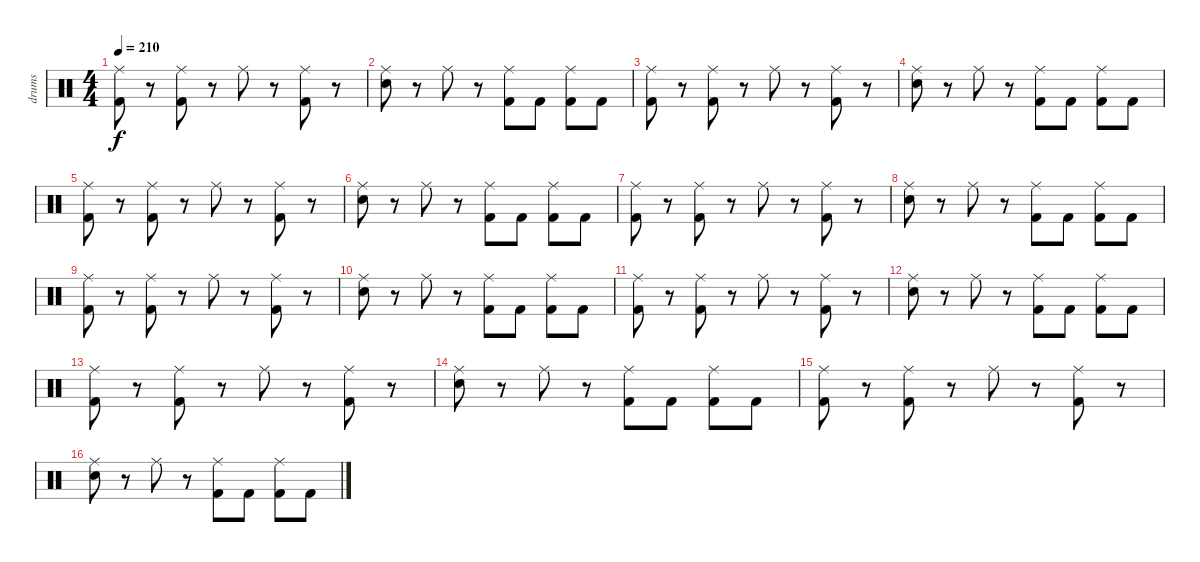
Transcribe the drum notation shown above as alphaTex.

\track ("drums" "drums") {instrument percussion}
\staff {score}
\articulation defaults
\ts (4 4)
\tempo 210
\clef neutral
\ks c
("Ride (middle)" "Kick (hit) 2").8{dy f} r.8 ("Ride (middle)" "Kick (hit) 2").8 r.8 "Ride (middle)".8 r.8 ("Ride (middle)" "Kick (hit) 2").8 r.8 |
("Ride (middle)" "Snare (hit) 2").8 r.8 "Ride (middle)".8 r.8 ("Ride (middle)" "Kick (hit) 2").8 "Kick (hit) 2".8 ("Ride (middle)" "Kick (hit) 2").8 "Kick (hit) 2".8 |
("Ride (middle)" "Kick (hit) 2").8 r.8 ("Ride (middle)" "Kick (hit) 2").8 r.8 "Ride (middle)".8 r.8 ("Ride (middle)" "Kick (hit) 2").8 r.8 |
("Ride (middle)" "Snare (hit) 2").8 r.8 "Ride (middle)".8 r.8 ("Ride (middle)" "Kick (hit) 2").8 "Kick (hit) 2".8 ("Ride (middle)" "Kick (hit) 2").8 "Kick (hit) 2".8 |
("Ride (middle)" "Kick (hit) 2").8 r.8 ("Ride (middle)" "Kick (hit) 2").8 r.8 "Ride (middle)".8 r.8 ("Ride (middle)" "Kick (hit) 2").8 r.8 |
("Ride (middle)" "Snare (hit) 2").8 r.8 "Ride (middle)".8 r.8 ("Ride (middle)" "Kick (hit) 2").8 "Kick (hit) 2".8 ("Ride (middle)" "Kick (hit) 2").8 "Kick (hit) 2".8 |
("Ride (middle)" "Kick (hit) 2").8 r.8 ("Ride (middle)" "Kick (hit) 2").8 r.8 "Ride (middle)".8 r.8 ("Ride (middle)" "Kick (hit) 2").8 r.8 |
("Ride (middle)" "Snare (hit) 2").8 r.8 "Ride (middle)".8 r.8 ("Ride (middle)" "Kick (hit) 2").8 "Kick (hit) 2".8 ("Ride (middle)" "Kick (hit) 2").8 "Kick (hit) 2".8 |
("Ride (middle)" "Kick (hit) 2").8 r.8 ("Ride (middle)" "Kick (hit) 2").8 r.8 "Ride (middle)".8 r.8 ("Ride (middle)" "Kick (hit) 2").8 r.8 |
("Ride (middle)" "Snare (hit) 2").8 r.8 "Ride (middle)".8 r.8 ("Ride (middle)" "Kick (hit) 2").8 "Kick (hit) 2".8 ("Ride (middle)" "Kick (hit) 2").8 "Kick (hit) 2".8 |
("Ride (middle)" "Kick (hit) 2").8 r.8 ("Ride (middle)" "Kick (hit) 2").8 r.8 "Ride (middle)".8 r.8 ("Ride (middle)" "Kick (hit) 2").8 r.8 |
("Ride (middle)" "Snare (hit) 2").8 r.8 "Ride (middle)".8 r.8 ("Ride (middle)" "Kick (hit) 2").8 "Kick (hit) 2".8 ("Ride (middle)" "Kick (hit) 2").8 "Kick (hit) 2".8 |
("Ride (middle)" "Kick (hit) 2").8 r.8 ("Ride (middle)" "Kick (hit) 2").8 r.8 "Ride (middle)".8 r.8 ("Ride (middle)" "Kick (hit) 2").8 r.8 |
("Ride (middle)" "Snare (hit) 2").8 r.8 "Ride (middle)".8 r.8 ("Ride (middle)" "Kick (hit) 2").8 "Kick (hit) 2".8 ("Ride (middle)" "Kick (hit) 2").8 "Kick (hit) 2".8 |
("Ride (middle)" "Kick (hit) 2").8 r.8 ("Ride (middle)" "Kick (hit) 2").8 r.8 "Ride (middle)".8 r.8 ("Ride (middle)" "Kick (hit) 2").8 r.8 |
("Ride (middle)" "Snare (hit) 2").8 r.8 "Ride (middle)".8 r.8 ("Ride (middle)" "Kick (hit) 2").8 "Kick (hit) 2".8 ("Ride (middle)" "Kick (hit) 2").8 "Kick (hit) 2".8
